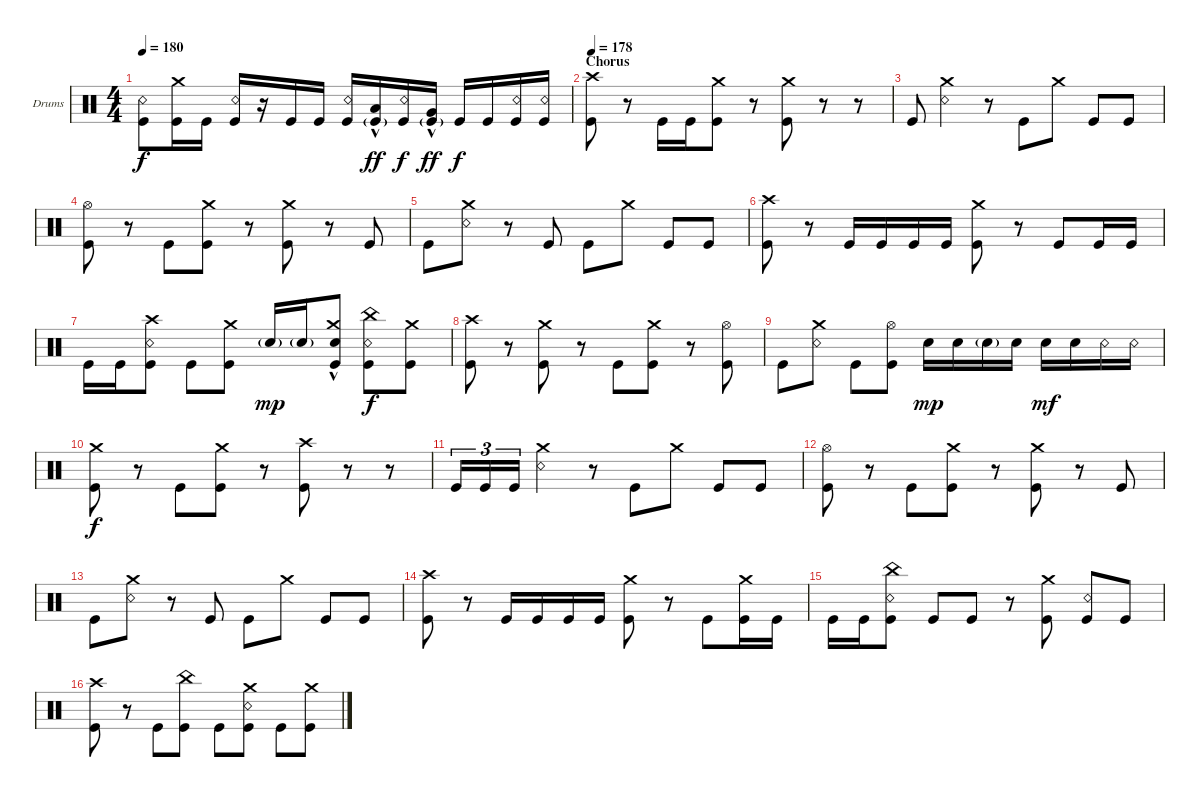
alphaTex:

\bracketExtendMode groupsimilarinstruments
\firstSystemTrackNameOrientation horizontal
\otherSystemsTrackNameOrientation horizontal
\track ("Drumkit" "Drums") {instrument percussion}
\staff {score}
\articulation defaults
\ts (4 4)
\tempo 180
\clef neutral
\ks c
("Kick (hit)" "Snare (rim shot)").8{dy f} ("Kick (hit)" "Crash medium (hit)").16 "Kick (hit)".16 ("Kick (hit)" "Snare (rim shot)").16 r.16 "Kick (hit)".16 "Kick (hit)".16 ("Snare (rim shot)" "Kick (hit)").16 ("Kick (hit)"{g} "Low Tom (hit)"{hac}).16{dy ff} ("Kick (hit)" "Snare (rim shot)").16{dy f} ("Kick (hit)"{g} "Very Low Tom (hit)"{hac}).16{dy ff} "Kick (hit)".16{dy f} "Kick (hit)".16 ("Kick (hit)" "Snare (rim shot)").16 ("Kick (hit)" "Snare (rim shot)").16 |
\section ("" "Chorus")
\tempo 178
("Kick (hit)" "Crash high (hit)").8 r.8 "Kick (hit)".16 "Kick (hit)".16 ("Kick (hit)" "Crash medium (hit)").8 r.8 ("Kick (hit)" "Crash medium (hit)").8 r.8 r.8 |
"Kick (hit)".8 ("Snare (rim shot)" "Crash medium (hit)").4 r.8 "Kick (hit)".8 "Crash medium (hit)".8 "Kick (hit)".8 "Kick (hit)".8 |
("Kick (hit)" "Hi-Hat (open)").8 r.8 "Kick (hit)".8 ("Kick (hit)" "Crash medium (hit)").8 r.8 ("Kick (hit)" "Crash medium (hit)").8 r.8 "Kick (hit)".8 |
"Kick (hit)".8 ("Snare (rim shot)" "Crash medium (hit)").8 r.8 "Kick (hit)".8 "Kick (hit)".8 "Crash medium (hit)".8 "Kick (hit)".8 "Kick (hit)".8 |
("Kick (hit)" "Crash high (hit)").8 r.8 "Kick (hit)".16 "Kick (hit)".16 "Kick (hit)".16 "Kick (hit)".16 ("Kick (hit)" "Crash medium (hit)").8 r.8 "Kick (hit)".8 "Kick (hit)".16 "Kick (hit)".16 |
"Kick (hit)".16 "Kick (hit)".16 ("Kick (hit)" "Snare (rim shot)" "Crash high (hit)").8 "Kick (hit)".8 ("Kick (hit)" "Crash medium (hit)").8 "Snare (hit) 2"{g}.16{dy mp} "Snare (hit) 2"{g}.16 ("Kick (hit)"{hac} "Snare (hit) 2" "Crash medium (hit)"{hac}).8 ("Kick (hit)" "Snare (rim shot)" "China (hit)").8{dy f} ("Kick (hit)" "Crash medium (hit)").8 |
("Kick (hit)" "Crash high (hit)").8 r.8 ("Kick (hit)" "Crash medium (hit)").8 r.8 "Kick (hit)".8 ("Kick (hit)" "Crash medium (hit)").8 r.8 ("Kick (hit)" "Hi-Hat (open)").8 |
"Kick (hit)".8 ("Snare (rim shot)" "Crash medium (hit)").8 "Kick (hit)".8 ("Kick (hit)" "Hi-Hat (open)").8 "Snare (hit) 2".16{dy mp} "Snare (hit) 2".16 "Snare (hit) 2"{g}.16 "Snare (hit) 2".16 "Snare (hit) 2".16{dy mf} "Snare (hit) 2".16 "Snare (rim shot)".16 "Snare (rim shot)".16 |
("Kick (hit)" "Crash medium (hit)").8{dy f} r.8 "Kick (hit)".8 ("Kick (hit)" "Crash medium (hit)").8 r.8 ("Kick (hit)" "Crash high (hit)").8 r.8 r.8 |
"Kick (hit)".16{tu (3 2)} "Kick (hit)".16{tu (3 2)} "Kick (hit)".16{tu (3 2)} ("Snare (rim shot)" "Crash medium (hit)").4 r.8 "Kick (hit)".8 "Crash medium (hit)".8 "Kick (hit)".8 "Kick (hit)".8 |
("Kick (hit)" "Hi-Hat (open)").8 r.8 "Kick (hit)".8 ("Kick (hit)" "Crash medium (hit)").8 r.8 ("Kick (hit)" "Crash medium (hit)").8 r.8 "Kick (hit)".8 |
"Kick (hit)".8 ("Snare (rim shot)" "Crash medium (hit)").8 r.8 "Kick (hit)".8 "Kick (hit)".8 "Crash medium (hit)".8 "Kick (hit)".8 "Kick (hit)".8 |
("Kick (hit)" "Crash high (hit)").8 r.8 "Kick (hit)".16 "Kick (hit)".16 "Kick (hit)".16 "Kick (hit)".16 ("Kick (hit)" "Crash medium (hit)").8 r.8 "Kick (hit)".8 ("Kick (hit)" "Crash medium (hit)").16 "Kick (hit)".16 |
"Kick (hit)".16 "Kick (hit)".16 ("Kick (hit)" "Snare (rim shot)" "China (hit)").8 "Kick (hit)".8 "Kick (hit)".8 r.8 ("Kick (hit)" "Crash medium (hit)").8 ("Kick (hit)" "Snare (rim shot)").8 "Kick (hit)".8 |
("Kick (hit)" "Crash high (hit)").8 r.8 "Kick (hit)".8 ("Kick (hit)" "China (hit)").8 "Kick (hit)".8 ("Kick (hit)" "Snare (rim shot)" "Crash medium (hit)").8 "Kick (hit)".8 ("Kick (hit)" "Crash medium (hit)").8
